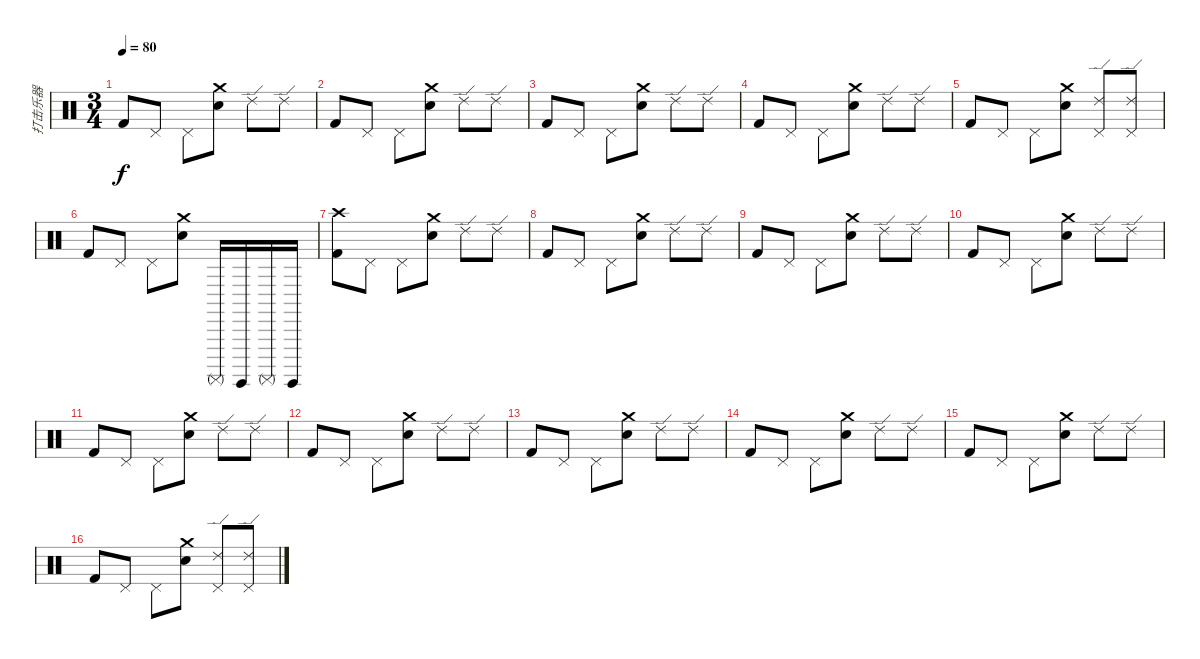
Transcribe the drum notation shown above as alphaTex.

\track ("打击乐器" "打击乐器") {instrument percussion}
\staff {score}
\articulation defaults
\ts (3 4)
\tempo 80
\clef neutral
\ks c "Kick (hit) 2".8{dy f} "Pedal Hi-Hat (hit)".8 "Pedal Hi-Hat (hit)".8
("Crash medium (hit)" "Snare (hit) 2").8 "Ride (edge) 2".8 "Ride (edge) 2".8 |
"Kick (hit) 2".8 "Pedal Hi-Hat (hit)".8 "Pedal Hi-Hat (hit)".8 ("Crash medium (hit)" "Snare (hit) 2").8 "Ride (edge) 2".8 "Ride (edge) 2".8 |
"Kick (hit) 2".8 "Pedal Hi-Hat (hit)".8 "Pedal Hi-Hat (hit)".8 ("Crash medium (hit)" "Snare (hit) 2").8 "Ride (edge) 2".8 "Ride (edge) 2".8 |
"Kick (hit) 2".8 "Pedal Hi-Hat (hit)".8 "Pedal Hi-Hat (hit)".8 ("Crash medium (hit)" "Snare (hit) 2").8 "Ride (edge) 2".8 "Ride (edge) 2".8 |
"Kick (hit) 2".8 "Pedal Hi-Hat (hit)".8 "Pedal Hi-Hat (hit)".8 ("Crash medium (hit)" "Snare (hit) 2").8 ("Pedal Hi-Hat (hit)" "Ride (edge) 2").8 ("Pedal Hi-Hat (hit)" "Ride (edge) 2").8 |
"Kick (hit) 2".8 "Pedal Hi-Hat (hit)".8 "Pedal Hi-Hat (hit)".8 ("Crash medium (hit)" "Snare (hit) 2").8 "Surdo (mute)".16 "Surdo (hit)".16 "Surdo (mute)".16 "Surdo (hit)".16 |
("Crash high (hit)" "Kick (hit) 2").8 "Pedal Hi-Hat (hit)".8 "Pedal Hi-Hat (hit)".8 ("Crash medium (hit)" "Snare (hit) 2").8 "Ride (edge) 2".8 "Ride (edge) 2".8 |
"Kick (hit) 2".8 "Pedal Hi-Hat (hit)".8 "Pedal Hi-Hat (hit)".8 ("Crash medium (hit)" "Snare (hit) 2").8 "Ride (edge) 2".8 "Ride (edge) 2".8 |
"Kick (hit) 2".8 "Pedal Hi-Hat (hit)".8 "Pedal Hi-Hat (hit)".8 ("Crash medium (hit)" "Snare (hit) 2").8 "Ride (edge) 2".8 "Ride (edge) 2".8 |
"Kick (hit) 2".8 "Pedal Hi-Hat (hit)".8 "Pedal Hi-Hat (hit)".8 ("Crash medium (hit)" "Snare (hit) 2").8 "Ride (edge) 2".8 "Ride (edge) 2".8 |
"Kick (hit) 2".8 "Pedal Hi-Hat (hit)".8 "Pedal Hi-Hat (hit)".8 ("Crash medium (hit)" "Snare (hit) 2").8 "Ride (edge) 2".8 "Ride (edge) 2".8 |
"Kick (hit) 2".8 "Pedal Hi-Hat (hit)".8 "Pedal Hi-Hat (hit)".8 ("Crash medium (hit)" "Snare (hit) 2").8 "Ride (edge) 2".8 "Ride (edge) 2".8 |
"Kick (hit) 2".8 "Pedal Hi-Hat (hit)".8 "Pedal Hi-Hat (hit)".8 ("Crash medium (hit)" "Snare (hit) 2").8 "Ride (edge) 2".8 "Ride (edge) 2".8 |
"Kick (hit) 2".8 "Pedal Hi-Hat (hit)".8 "Pedal Hi-Hat (hit)".8 ("Crash medium (hit)" "Snare (hit) 2").8 "Ride (edge) 2".8 "Ride (edge) 2".8 |
"Kick (hit) 2".8 "Pedal Hi-Hat (hit)".8 "Pedal Hi-Hat (hit)".8 ("Crash medium (hit)" "Snare (hit) 2").8 "Ride (edge) 2".8 "Ride (edge) 2".8 |
"Kick (hit) 2".8 "Pedal Hi-Hat (hit)".8 "Pedal Hi-Hat (hit)".8 ("Crash medium (hit)" "Snare (hit) 2").8 ("Pedal Hi-Hat (hit)" "Ride (edge) 2").8 ("Pedal Hi-Hat (hit)" "Ride (edge) 2").8
